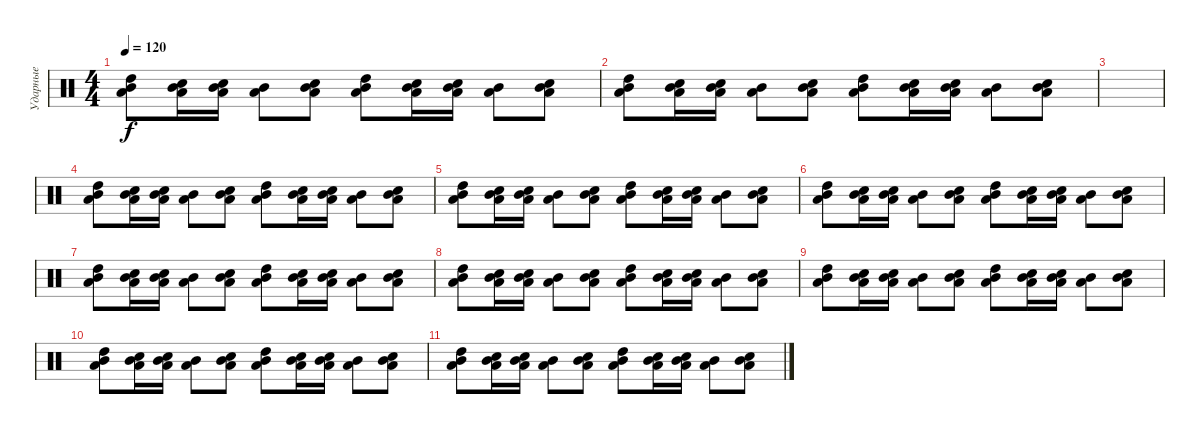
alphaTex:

\track ("Ударные" "Ударные") {instrument percussion}
\staff {score}
\articulation defaults
\ts (4 4)
\tempo 120
\clef neutral
\ks c
("Mid Tom (hit)" "High Tom (hit)" "Low Tom (hit)").8{dy f} ("Electric Snare (hit)" "Mid Tom (hit)" "Low Tom (hit)").16 ("Electric Snare (hit)" "Mid Tom (hit)" "Low Tom (hit)").16 ("Mid Tom (hit)" "Low Tom (hit)").8 ("Snare (hit) 2" "Mid Tom (hit)" "Low Tom (hit)").8 ("Mid Tom (hit)" "High Tom (hit)" "Low Tom (hit)").8 ("Electric Snare (hit)" "Mid Tom (hit)" "Low Tom (hit)").16 ("Electric Snare (hit)" "Mid Tom (hit)" "Low Tom (hit)").16 ("Mid Tom (hit)" "Low Tom (hit)").8 ("Snare (hit) 2" "Mid Tom (hit)" "Low Tom (hit)").8 |
("Mid Tom (hit)" "High Tom (hit)" "Low Tom (hit)").8 ("Electric Snare (hit)" "Mid Tom (hit)" "Low Tom (hit)").16 ("Electric Snare (hit)" "Mid Tom (hit)" "Low Tom (hit)").16 ("Mid Tom (hit)" "Low Tom (hit)").8 ("Snare (hit) 2" "Mid Tom (hit)" "Low Tom (hit)").8 ("Mid Tom (hit)" "High Tom (hit)" "Low Tom (hit)").8 ("Electric Snare (hit)" "Mid Tom (hit)" "Low Tom (hit)").16 ("Electric Snare (hit)" "Mid Tom (hit)" "Low Tom (hit)").16 ("Mid Tom (hit)" "Low Tom (hit)").8 ("Snare (hit) 2" "Mid Tom (hit)" "Low Tom (hit)").8 |
|
("Mid Tom (hit)" "High Tom (hit)" "Low Tom (hit)").8 ("Electric Snare (hit)" "Mid Tom (hit)" "Low Tom (hit)").16 ("Electric Snare (hit)" "Mid Tom (hit)" "Low Tom (hit)").16 ("Mid Tom (hit)" "Low Tom (hit)").8 ("Snare (hit) 2" "Mid Tom (hit)" "Low Tom (hit)").8 ("Mid Tom (hit)" "High Tom (hit)" "Low Tom (hit)").8 ("Electric Snare (hit)" "Mid Tom (hit)" "Low Tom (hit)").16 ("Electric Snare (hit)" "Mid Tom (hit)" "Low Tom (hit)").16 ("Mid Tom (hit)" "Low Tom (hit)").8 ("Snare (hit) 2" "Mid Tom (hit)" "Low Tom (hit)").8 |
("Mid Tom (hit)" "High Tom (hit)" "Low Tom (hit)").8 ("Electric Snare (hit)" "Mid Tom (hit)" "Low Tom (hit)").16 ("Electric Snare (hit)" "Mid Tom (hit)" "Low Tom (hit)").16 ("Mid Tom (hit)" "Low Tom (hit)").8 ("Snare (hit) 2" "Mid Tom (hit)" "Low Tom (hit)").8 ("Mid Tom (hit)" "High Tom (hit)" "Low Tom (hit)").8 ("Electric Snare (hit)" "Mid Tom (hit)" "Low Tom (hit)").16 ("Electric Snare (hit)" "Mid Tom (hit)" "Low Tom (hit)").16 ("Mid Tom (hit)" "Low Tom (hit)").8 ("Snare (hit) 2" "Mid Tom (hit)" "Low Tom (hit)").8 |
("Mid Tom (hit)" "High Tom (hit)" "Low Tom (hit)").8 ("Electric Snare (hit)" "Mid Tom (hit)" "Low Tom (hit)").16 ("Electric Snare (hit)" "Mid Tom (hit)" "Low Tom (hit)").16 ("Mid Tom (hit)" "Low Tom (hit)").8 ("Snare (hit) 2" "Mid Tom (hit)" "Low Tom (hit)").8 ("Mid Tom (hit)" "High Tom (hit)" "Low Tom (hit)").8 ("Electric Snare (hit)" "Mid Tom (hit)" "Low Tom (hit)").16 ("Electric Snare (hit)" "Mid Tom (hit)" "Low Tom (hit)").16 ("Mid Tom (hit)" "Low Tom (hit)").8 ("Snare (hit) 2" "Mid Tom (hit)" "Low Tom (hit)").8 |
("Mid Tom (hit)" "High Tom (hit)" "Low Tom (hit)").8 ("Electric Snare (hit)" "Mid Tom (hit)" "Low Tom (hit)").16 ("Electric Snare (hit)" "Mid Tom (hit)" "Low Tom (hit)").16 ("Mid Tom (hit)" "Low Tom (hit)").8 ("Snare (hit) 2" "Mid Tom (hit)" "Low Tom (hit)").8 ("Mid Tom (hit)" "High Tom (hit)" "Low Tom (hit)").8 ("Electric Snare (hit)" "Mid Tom (hit)" "Low Tom (hit)").16 ("Electric Snare (hit)" "Mid Tom (hit)" "Low Tom (hit)").16 ("Mid Tom (hit)" "Low Tom (hit)").8 ("Snare (hit) 2" "Mid Tom (hit)" "Low Tom (hit)").8 |
("Mid Tom (hit)" "High Tom (hit)" "Low Tom (hit)").8 ("Electric Snare (hit)" "Mid Tom (hit)" "Low Tom (hit)").16 ("Electric Snare (hit)" "Mid Tom (hit)" "Low Tom (hit)").16 ("Mid Tom (hit)" "Low Tom (hit)").8 ("Snare (hit) 2" "Mid Tom (hit)" "Low Tom (hit)").8 ("Mid Tom (hit)" "High Tom (hit)" "Low Tom (hit)").8 ("Electric Snare (hit)" "Mid Tom (hit)" "Low Tom (hit)").16 ("Electric Snare (hit)" "Mid Tom (hit)" "Low Tom (hit)").16 ("Mid Tom (hit)" "Low Tom (hit)").8 ("Snare (hit) 2" "Mid Tom (hit)" "Low Tom (hit)").8 |
("Mid Tom (hit)" "High Tom (hit)" "Low Tom (hit)").8 ("Electric Snare (hit)" "Mid Tom (hit)" "Low Tom (hit)").16 ("Electric Snare (hit)" "Mid Tom (hit)" "Low Tom (hit)").16 ("Mid Tom (hit)" "Low Tom (hit)").8 ("Snare (hit) 2" "Mid Tom (hit)" "Low Tom (hit)").8 ("Mid Tom (hit)" "High Tom (hit)" "Low Tom (hit)").8 ("Electric Snare (hit)" "Mid Tom (hit)" "Low Tom (hit)").16 ("Electric Snare (hit)" "Mid Tom (hit)" "Low Tom (hit)").16 ("Mid Tom (hit)" "Low Tom (hit)").8 ("Snare (hit) 2" "Mid Tom (hit)" "Low Tom (hit)").8 |
("Mid Tom (hit)" "High Tom (hit)" "Low Tom (hit)").8 ("Electric Snare (hit)" "Mid Tom (hit)" "Low Tom (hit)").16 ("Electric Snare (hit)" "Mid Tom (hit)" "Low Tom (hit)").16 ("Mid Tom (hit)" "Low Tom (hit)").8 ("Snare (hit) 2" "Mid Tom (hit)" "Low Tom (hit)").8 ("Mid Tom (hit)" "High Tom (hit)" "Low Tom (hit)").8 ("Electric Snare (hit)" "Mid Tom (hit)" "Low Tom (hit)").16 ("Electric Snare (hit)" "Mid Tom (hit)" "Low Tom (hit)").16 ("Mid Tom (hit)" "Low Tom (hit)").8 ("Snare (hit) 2" "Mid Tom (hit)" "Low Tom (hit)").8 |
("Mid Tom (hit)" "High Tom (hit)" "Low Tom (hit)").8 ("Electric Snare (hit)" "Mid Tom (hit)" "Low Tom (hit)").16 ("Electric Snare (hit)" "Mid Tom (hit)" "Low Tom (hit)").16 ("Mid Tom (hit)" "Low Tom (hit)").8 ("Snare (hit) 2" "Mid Tom (hit)" "Low Tom (hit)").8 ("Mid Tom (hit)" "High Tom (hit)" "Low Tom (hit)").8 ("Electric Snare (hit)" "Mid Tom (hit)" "Low Tom (hit)").16 ("Electric Snare (hit)" "Mid Tom (hit)" "Low Tom (hit)").16 ("Mid Tom (hit)" "Low Tom (hit)").8 ("Snare (hit) 2" "Mid Tom (hit)" "Low Tom (hit)").8
